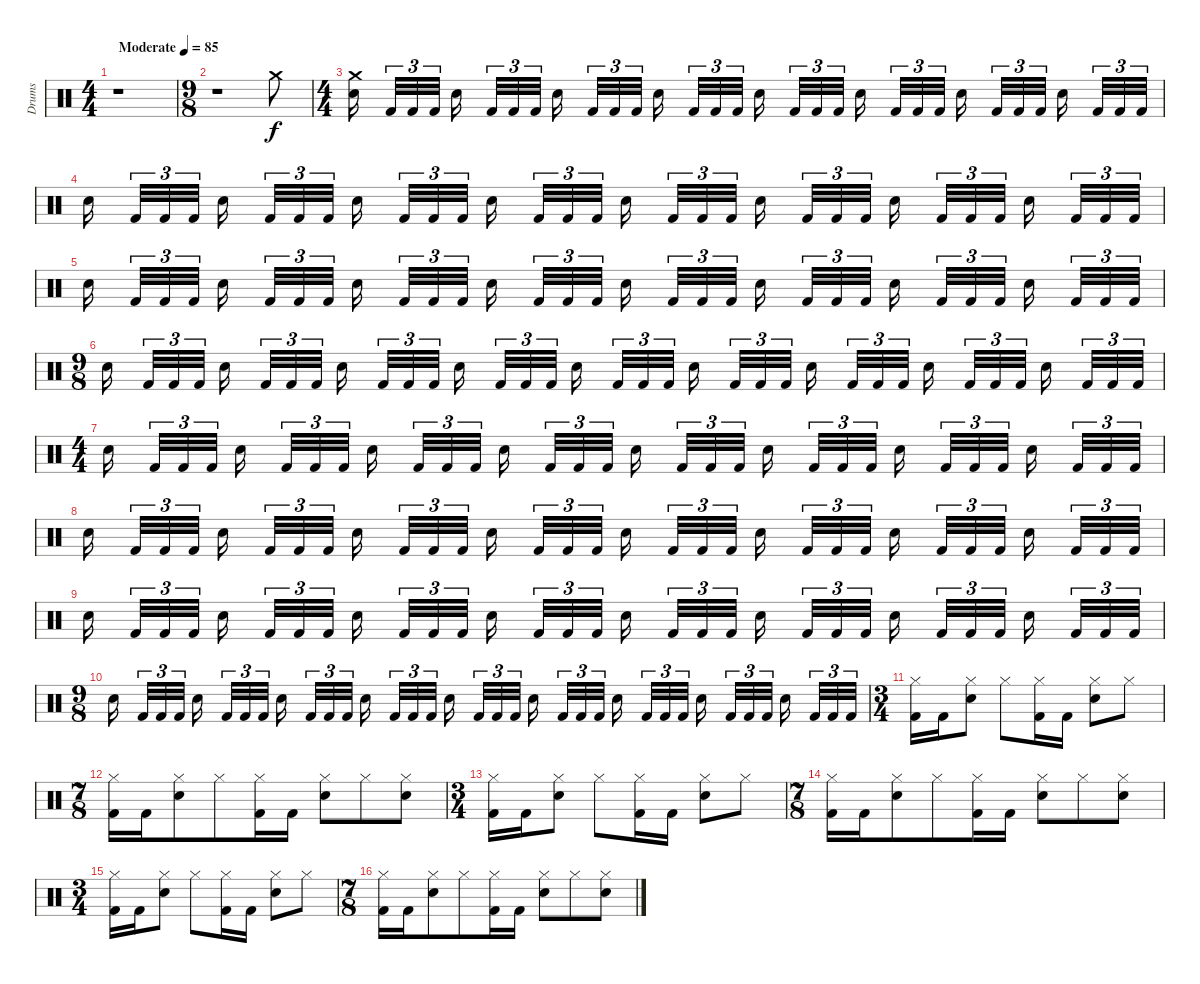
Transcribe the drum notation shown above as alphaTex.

\track ("Drums" "Drums") {instrument percussion}
\staff {score}
\articulation defaults
\ts (4 4)
\tempo (85 "Moderate")
\clef neutral
\ks c
r.1{dy f} |
\ts (9 8)
r.1 "Crash medium (hit)".8 |
\ts (4 4)
("Crash medium (hit)" "Electric Snare (hit)").16{beam splitsecondary} "Kick (hit) 2".32{tu (3 2)} "Kick (hit) 2".32{tu (3 2)} "Kick (hit) 2".32{tu (3 2) beam splitsecondary} "Electric Snare (hit)".16{beam splitsecondary} "Kick (hit) 2".32{tu (3 2)} "Kick (hit) 2".32{tu (3 2)} "Kick (hit) 2".32{tu (3 2)} "Electric Snare (hit)".16{beam splitsecondary} "Kick (hit) 2".32{tu (3 2)} "Kick (hit) 2".32{tu (3 2)} "Kick (hit) 2".32{tu (3 2) beam splitsecondary} "Electric Snare (hit)".16{beam splitsecondary} "Kick (hit) 2".32{tu (3 2)} "Kick (hit) 2".32{tu (3 2)} "Kick (hit) 2".32{tu (3 2)} "Electric Snare (hit)".16{beam splitsecondary} "Kick (hit) 2".32{tu (3 2)} "Kick (hit) 2".32{tu (3 2)} "Kick (hit) 2".32{tu (3 2) beam splitsecondary} "Electric Snare (hit)".16{beam splitsecondary} "Kick (hit) 2".32{tu (3 2)} "Kick (hit) 2".32{tu (3 2)} "Kick (hit) 2".32{tu (3 2)} "Electric Snare (hit)".16{beam splitsecondary} "Kick (hit) 2".32{tu (3 2)} "Kick (hit) 2".32{tu (3 2)} "Kick (hit) 2".32{tu (3 2) beam splitsecondary} "Electric Snare (hit)".16{beam splitsecondary} "Kick (hit) 2".32{tu (3 2)} "Kick (hit) 2".32{tu (3 2)} "Kick (hit) 2".32{tu (3 2)} |
"Electric Snare (hit)".16{beam splitsecondary} "Kick (hit) 2".32{tu (3 2)} "Kick (hit) 2".32{tu (3 2)} "Kick (hit) 2".32{tu (3 2) beam splitsecondary} "Electric Snare (hit)".16{beam splitsecondary} "Kick (hit) 2".32{tu (3 2)} "Kick (hit) 2".32{tu (3 2)} "Kick (hit) 2".32{tu (3 2)} "Electric Snare (hit)".16{beam splitsecondary} "Kick (hit) 2".32{tu (3 2)} "Kick (hit) 2".32{tu (3 2)} "Kick (hit) 2".32{tu (3 2) beam splitsecondary} "Electric Snare (hit)".16{beam splitsecondary} "Kick (hit) 2".32{tu (3 2)} "Kick (hit) 2".32{tu (3 2)} "Kick (hit) 2".32{tu (3 2)} "Electric Snare (hit)".16{beam splitsecondary} "Kick (hit) 2".32{tu (3 2)} "Kick (hit) 2".32{tu (3 2)} "Kick (hit) 2".32{tu (3 2) beam splitsecondary} "Electric Snare (hit)".16{beam splitsecondary} "Kick (hit) 2".32{tu (3 2)} "Kick (hit) 2".32{tu (3 2)} "Kick (hit) 2".32{tu (3 2)} "Electric Snare (hit)".16{beam splitsecondary} "Kick (hit) 2".32{tu (3 2)} "Kick (hit) 2".32{tu (3 2)} "Kick (hit) 2".32{tu (3 2) beam splitsecondary} "Electric Snare (hit)".16{beam splitsecondary} "Kick (hit) 2".32{tu (3 2)} "Kick (hit) 2".32{tu (3 2)} "Kick (hit) 2".32{tu (3 2)} |
"Electric Snare (hit)".16{beam splitsecondary} "Kick (hit) 2".32{tu (3 2)} "Kick (hit) 2".32{tu (3 2)} "Kick (hit) 2".32{tu (3 2) beam splitsecondary} "Electric Snare (hit)".16{beam splitsecondary} "Kick (hit) 2".32{tu (3 2)} "Kick (hit) 2".32{tu (3 2)} "Kick (hit) 2".32{tu (3 2)} "Electric Snare (hit)".16{beam splitsecondary} "Kick (hit) 2".32{tu (3 2)} "Kick (hit) 2".32{tu (3 2)} "Kick (hit) 2".32{tu (3 2) beam splitsecondary} "Electric Snare (hit)".16{beam splitsecondary} "Kick (hit) 2".32{tu (3 2)} "Kick (hit) 2".32{tu (3 2)} "Kick (hit) 2".32{tu (3 2)} "Electric Snare (hit)".16{beam splitsecondary} "Kick (hit) 2".32{tu (3 2)} "Kick (hit) 2".32{tu (3 2)} "Kick (hit) 2".32{tu (3 2) beam splitsecondary} "Electric Snare (hit)".16{beam splitsecondary} "Kick (hit) 2".32{tu (3 2)} "Kick (hit) 2".32{tu (3 2)} "Kick (hit) 2".32{tu (3 2)} "Electric Snare (hit)".16{beam splitsecondary} "Kick (hit) 2".32{tu (3 2)} "Kick (hit) 2".32{tu (3 2)} "Kick (hit) 2".32{tu (3 2) beam splitsecondary} "Electric Snare (hit)".16{beam splitsecondary} "Kick (hit) 2".32{tu (3 2)} "Kick (hit) 2".32{tu (3 2)} "Kick (hit) 2".32{tu (3 2)} |
\ts (9 8)
"Electric Snare (hit)".16{beam splitsecondary} "Kick (hit) 2".32{tu (3 2)} "Kick (hit) 2".32{tu (3 2)} "Kick (hit) 2".32{tu (3 2) beam splitsecondary} "Electric Snare (hit)".16{beam splitsecondary} "Kick (hit) 2".32{tu (3 2)} "Kick (hit) 2".32{tu (3 2)} "Kick (hit) 2".32{tu (3 2) beam splitsecondary} "Electric Snare (hit)".16{beam splitsecondary} "Kick (hit) 2".32{tu (3 2)} "Kick (hit) 2".32{tu (3 2)} "Kick (hit) 2".32{tu (3 2)} "Electric Snare (hit)".16{beam splitsecondary} "Kick (hit) 2".32{tu (3 2)} "Kick (hit) 2".32{tu (3 2)} "Kick (hit) 2".32{tu (3 2) beam splitsecondary} "Electric Snare (hit)".16{beam splitsecondary} "Kick (hit) 2".32{tu (3 2)} "Kick (hit) 2".32{tu (3 2)} "Kick (hit) 2".32{tu (3 2) beam splitsecondary} "Electric Snare (hit)".16{beam splitsecondary} "Kick (hit) 2".32{tu (3 2)} "Kick (hit) 2".32{tu (3 2)} "Kick (hit) 2".32{tu (3 2)} "Electric Snare (hit)".16{beam splitsecondary} "Kick (hit) 2".32{tu (3 2)} "Kick (hit) 2".32{tu (3 2)} "Kick (hit) 2".32{tu (3 2) beam splitsecondary} "Electric Snare (hit)".16{beam splitsecondary} "Kick (hit) 2".32{tu (3 2)} "Kick (hit) 2".32{tu (3 2)} "Kick (hit) 2".32{tu (3 2) beam splitsecondary} "Electric Snare (hit)".16{beam splitsecondary} "Kick (hit) 2".32{tu (3 2)} "Kick (hit) 2".32{tu (3 2)} "Kick (hit) 2".32{tu (3 2)} |
\ts (4 4)
"Electric Snare (hit)".16{beam splitsecondary} "Kick (hit) 2".32{tu (3 2)} "Kick (hit) 2".32{tu (3 2)} "Kick (hit) 2".32{tu (3 2) beam splitsecondary} "Electric Snare (hit)".16{beam splitsecondary} "Kick (hit) 2".32{tu (3 2)} "Kick (hit) 2".32{tu (3 2)} "Kick (hit) 2".32{tu (3 2)} "Electric Snare (hit)".16{beam splitsecondary} "Kick (hit) 2".32{tu (3 2)} "Kick (hit) 2".32{tu (3 2)} "Kick (hit) 2".32{tu (3 2) beam splitsecondary} "Electric Snare (hit)".16{beam splitsecondary} "Kick (hit) 2".32{tu (3 2)} "Kick (hit) 2".32{tu (3 2)} "Kick (hit) 2".32{tu (3 2)} "Electric Snare (hit)".16{beam splitsecondary} "Kick (hit) 2".32{tu (3 2)} "Kick (hit) 2".32{tu (3 2)} "Kick (hit) 2".32{tu (3 2) beam splitsecondary} "Electric Snare (hit)".16{beam splitsecondary} "Kick (hit) 2".32{tu (3 2)} "Kick (hit) 2".32{tu (3 2)} "Kick (hit) 2".32{tu (3 2)} "Electric Snare (hit)".16{beam splitsecondary} "Kick (hit) 2".32{tu (3 2)} "Kick (hit) 2".32{tu (3 2)} "Kick (hit) 2".32{tu (3 2) beam splitsecondary} "Electric Snare (hit)".16{beam splitsecondary} "Kick (hit) 2".32{tu (3 2)} "Kick (hit) 2".32{tu (3 2)} "Kick (hit) 2".32{tu (3 2)} |
"Electric Snare (hit)".16{beam splitsecondary} "Kick (hit) 2".32{tu (3 2)} "Kick (hit) 2".32{tu (3 2)} "Kick (hit) 2".32{tu (3 2) beam splitsecondary} "Electric Snare (hit)".16{beam splitsecondary} "Kick (hit) 2".32{tu (3 2)} "Kick (hit) 2".32{tu (3 2)} "Kick (hit) 2".32{tu (3 2)} "Electric Snare (hit)".16{beam splitsecondary} "Kick (hit) 2".32{tu (3 2)} "Kick (hit) 2".32{tu (3 2)} "Kick (hit) 2".32{tu (3 2) beam splitsecondary} "Electric Snare (hit)".16{beam splitsecondary} "Kick (hit) 2".32{tu (3 2)} "Kick (hit) 2".32{tu (3 2)} "Kick (hit) 2".32{tu (3 2)} "Electric Snare (hit)".16{beam splitsecondary} "Kick (hit) 2".32{tu (3 2)} "Kick (hit) 2".32{tu (3 2)} "Kick (hit) 2".32{tu (3 2) beam splitsecondary} "Electric Snare (hit)".16{beam splitsecondary} "Kick (hit) 2".32{tu (3 2)} "Kick (hit) 2".32{tu (3 2)} "Kick (hit) 2".32{tu (3 2)} "Electric Snare (hit)".16{beam splitsecondary} "Kick (hit) 2".32{tu (3 2)} "Kick (hit) 2".32{tu (3 2)} "Kick (hit) 2".32{tu (3 2) beam splitsecondary} "Electric Snare (hit)".16{beam splitsecondary} "Kick (hit) 2".32{tu (3 2)} "Kick (hit) 2".32{tu (3 2)} "Kick (hit) 2".32{tu (3 2)} |
"Electric Snare (hit)".16{beam splitsecondary} "Kick (hit) 2".32{tu (3 2)} "Kick (hit) 2".32{tu (3 2)} "Kick (hit) 2".32{tu (3 2) beam splitsecondary} "Electric Snare (hit)".16{beam splitsecondary} "Kick (hit) 2".32{tu (3 2)} "Kick (hit) 2".32{tu (3 2)} "Kick (hit) 2".32{tu (3 2)} "Electric Snare (hit)".16{beam splitsecondary} "Kick (hit) 2".32{tu (3 2)} "Kick (hit) 2".32{tu (3 2)} "Kick (hit) 2".32{tu (3 2) beam splitsecondary} "Electric Snare (hit)".16{beam splitsecondary} "Kick (hit) 2".32{tu (3 2)} "Kick (hit) 2".32{tu (3 2)} "Kick (hit) 2".32{tu (3 2)} "Electric Snare (hit)".16{beam splitsecondary} "Kick (hit) 2".32{tu (3 2)} "Kick (hit) 2".32{tu (3 2)} "Kick (hit) 2".32{tu (3 2) beam splitsecondary} "Electric Snare (hit)".16{beam splitsecondary} "Kick (hit) 2".32{tu (3 2)} "Kick (hit) 2".32{tu (3 2)} "Kick (hit) 2".32{tu (3 2)} "Electric Snare (hit)".16{beam splitsecondary} "Kick (hit) 2".32{tu (3 2)} "Kick (hit) 2".32{tu (3 2)} "Kick (hit) 2".32{tu (3 2) beam splitsecondary} "Electric Snare (hit)".16{beam splitsecondary} "Kick (hit) 2".32{tu (3 2)} "Kick (hit) 2".32{tu (3 2)} "Kick (hit) 2".32{tu (3 2)} |
\ts (9 8)
"Electric Snare (hit)".16{beam splitsecondary} "Kick (hit) 2".32{tu (3 2)} "Kick (hit) 2".32{tu (3 2)} "Kick (hit) 2".32{tu (3 2) beam splitsecondary} "Electric Snare (hit)".16{beam splitsecondary} "Kick (hit) 2".32{tu (3 2)} "Kick (hit) 2".32{tu (3 2)} "Kick (hit) 2".32{tu (3 2) beam splitsecondary} "Electric Snare (hit)".16{beam splitsecondary} "Kick (hit) 2".32{tu (3 2)} "Kick (hit) 2".32{tu (3 2)} "Kick (hit) 2".32{tu (3 2)} "Electric Snare (hit)".16{beam splitsecondary} "Kick (hit) 2".32{tu (3 2)} "Kick (hit) 2".32{tu (3 2)} "Kick (hit) 2".32{tu (3 2) beam splitsecondary} "Electric Snare (hit)".16{beam splitsecondary} "Kick (hit) 2".32{tu (3 2)} "Kick (hit) 2".32{tu (3 2)} "Kick (hit) 2".32{tu (3 2) beam splitsecondary} "Electric Snare (hit)".16{beam splitsecondary} "Kick (hit) 2".32{tu (3 2)} "Kick (hit) 2".32{tu (3 2)} "Kick (hit) 2".32{tu (3 2)} "Electric Snare (hit)".16{beam splitsecondary} "Kick (hit) 2".32{tu (3 2)} "Kick (hit) 2".32{tu (3 2)} "Kick (hit) 2".32{tu (3 2) beam splitsecondary} "Electric Snare (hit)".16{beam splitsecondary} "Kick (hit) 2".32{tu (3 2)} "Kick (hit) 2".32{tu (3 2)} "Kick (hit) 2".32{tu (3 2) beam splitsecondary} "Electric Snare (hit)".16{beam splitsecondary} "Kick (hit) 2".32{tu (3 2)} "Kick (hit) 2".32{tu (3 2)} "Kick (hit) 2".32{tu (3 2)} |
\ts (3 4)
("Hi-Hat (closed)" "Kick (hit) 2").16 "Kick (hit) 2".16 ("Hi-Hat (closed)" "Snare (hit) 2").8 "Hi-Hat (closed)".8 ("Hi-Hat (closed)" "Kick (hit) 2").16 "Kick (hit) 2".16 ("Hi-Hat (closed)" "Snare (hit) 2").8 "Hi-Hat (closed)".8 |
\ts (7 8)
("Hi-Hat (closed)" "Kick (hit) 2").16 "Kick (hit) 2".16 ("Hi-Hat (closed)" "Snare (hit) 2").8 "Hi-Hat (closed)".8 ("Hi-Hat (closed)" "Kick (hit) 2").16 "Kick (hit) 2".16 ("Hi-Hat (closed)" "Snare (hit) 2").8 "Hi-Hat (closed)".8 ("Hi-Hat (closed)" "Snare (hit) 2").8 |
\ts (3 4)
("Hi-Hat (closed)" "Kick (hit) 2").16 "Kick (hit) 2".16 ("Hi-Hat (closed)" "Snare (hit) 2").8 "Hi-Hat (closed)".8 ("Hi-Hat (closed)" "Kick (hit) 2").16 "Kick (hit) 2".16 ("Hi-Hat (closed)" "Snare (hit) 2").8 "Hi-Hat (closed)".8 |
\ts (7 8)
("Hi-Hat (closed)" "Kick (hit) 2").16 "Kick (hit) 2".16 ("Hi-Hat (closed)" "Snare (hit) 2").8 "Hi-Hat (closed)".8 ("Hi-Hat (closed)" "Kick (hit) 2").16 "Kick (hit) 2".16 ("Hi-Hat (closed)" "Snare (hit) 2").8 "Hi-Hat (closed)".8 ("Hi-Hat (closed)" "Snare (hit) 2").8 |
\ts (3 4)
("Hi-Hat (closed)" "Kick (hit) 2").16 "Kick (hit) 2".16 ("Hi-Hat (closed)" "Snare (hit) 2").8 "Hi-Hat (closed)".8 ("Hi-Hat (closed)" "Kick (hit) 2").16 "Kick (hit) 2".16 ("Hi-Hat (closed)" "Snare (hit) 2").8 "Hi-Hat (closed)".8 |
\ts (7 8)
("Hi-Hat (closed)" "Kick (hit) 2").16 "Kick (hit) 2".16 ("Hi-Hat (closed)" "Snare (hit) 2").8 "Hi-Hat (closed)".8 ("Hi-Hat (closed)" "Kick (hit) 2").16 "Kick (hit) 2".16 ("Hi-Hat (closed)" "Snare (hit) 2").8 "Hi-Hat (closed)".8 ("Hi-Hat (closed)" "Snare (hit) 2").8
